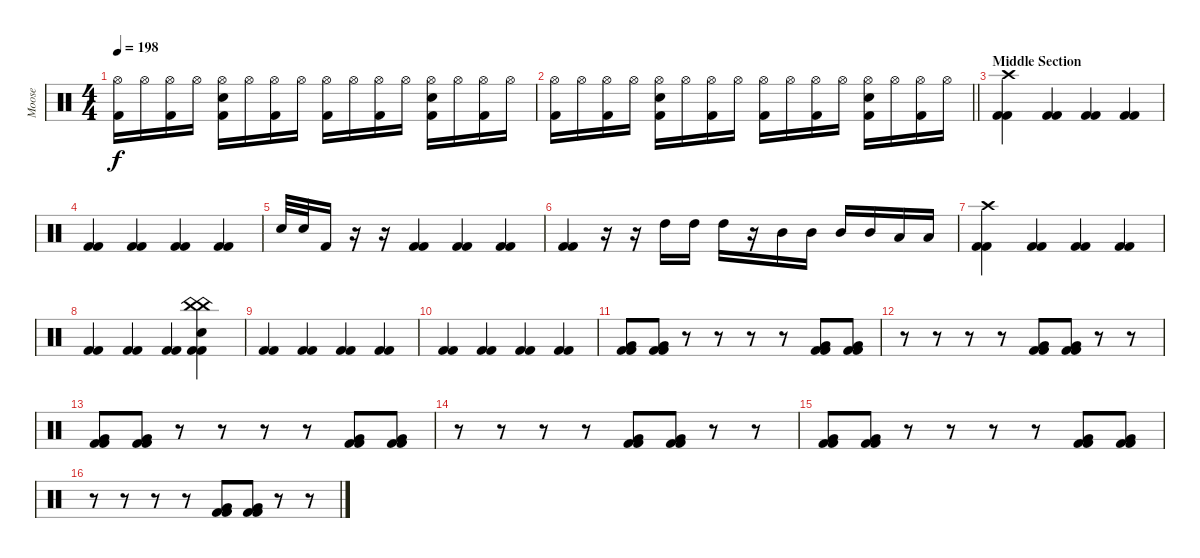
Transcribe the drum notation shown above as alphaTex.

\track ("Moose" "Moose") {instrument percussion}
\staff {score}
\articulation defaults
\ts (4 4)
\tempo 198
\clef neutral
\ks c
("Hi-Hat (open)" "Kick (hit) 2").16{dy f} "Hi-Hat (open)".16 ("Hi-Hat (open)" "Kick (hit) 2").16 "Hi-Hat (open)".16 ("Hi-Hat (open)" "Electric Snare (hit)" "Kick (hit) 2").16 "Hi-Hat (open)".16 ("Hi-Hat (open)" "Kick (hit) 2").16 "Hi-Hat (open)".16 ("Hi-Hat (open)" "Kick (hit) 2").16 "Hi-Hat (open)".16 ("Hi-Hat (open)" "Kick (hit) 2").16 "Hi-Hat (open)".16 ("Hi-Hat (open)" "Electric Snare (hit)" "Kick (hit) 2").16 "Hi-Hat (open)".16 ("Hi-Hat (open)" "Kick (hit) 2").16 "Hi-Hat (open)".16 |
\barLineRight lightlight
("Hi-Hat (open)" "Kick (hit) 2").16 "Hi-Hat (open)".16 ("Hi-Hat (open)" "Kick (hit) 2").16 "Hi-Hat (open)".16 ("Hi-Hat (open)" "Electric Snare (hit)" "Kick (hit) 2").16 "Hi-Hat (open)".16 ("Hi-Hat (open)" "Kick (hit) 2").16 "Hi-Hat (open)".16 ("Hi-Hat (open)" "Kick (hit) 2").16 "Hi-Hat (open)".16 ("Hi-Hat (open)" "Kick (hit) 2").16 "Hi-Hat (open)".16 ("Hi-Hat (open)" "Electric Snare (hit)" "Kick (hit) 2").16 "Hi-Hat (open)".16 ("Hi-Hat (open)" "Kick (hit) 2").16 "Hi-Hat (open)".16 |
\section ("" "Middle Section")
("Crash high (hit)" "Kick (hit) 2" "Kick (hit) 2").4 ("Kick (hit) 2" "Kick (hit) 2").4 ("Kick (hit) 2" "Kick (hit) 2").4 ("Kick (hit) 2" "Kick (hit) 2").4 |
("Kick (hit) 2" "Kick (hit) 2").4 ("Kick (hit) 2" "Kick (hit) 2").4 ("Kick (hit) 2" "Kick (hit) 2").4 ("Kick (hit) 2" "Kick (hit) 2").4 |
"Electric Snare (hit)".32 "Electric Snare (hit)".32 "Kick (hit) 2".16 r.16 r.16 ("Kick (hit) 2" "Kick (hit) 2").4 ("Kick (hit) 2" "Kick (hit) 2").4 ("Kick (hit) 2" "Kick (hit) 2").4 |
("Kick (hit) 2" "Kick (hit) 2").4 r.16 r.16 "High Tom (hit)".16 "High Tom (hit)".16 "High Tom (hit)".16 r.16 "Mid Tom (hit)".16 "Mid Tom (hit)".16 "Mid Tom (hit)".16 "Mid Tom (hit)".16 "Low Tom (hit)".16 "Low Tom (hit)".16 |
("Crash high (hit)" "Kick (hit) 2" "Kick (hit) 2").4 ("Kick (hit) 2" "Kick (hit) 2").4 ("Kick (hit) 2" "Kick (hit) 2").4 ("Kick (hit) 2" "Kick (hit) 2").4 |
("Kick (hit) 2" "Kick (hit) 2").4 ("Kick (hit) 2" "Kick (hit) 2").4 ("Kick (hit) 2" "Kick (hit) 2").4 ("China (hit)" "China (hit)" "Electric Snare (hit)" "Kick (hit) 2" "Kick (hit) 2").4 |
("Kick (hit) 2" "Kick (hit) 2").4 ("Kick (hit) 2" "Kick (hit) 2").4 ("Kick (hit) 2" "Kick (hit) 2").4 ("Kick (hit) 2" "Kick (hit) 2").4 |
("Kick (hit) 2" "Kick (hit) 2").4 ("Kick (hit) 2" "Kick (hit) 2").4 ("Kick (hit) 2" "Kick (hit) 2").4 ("Kick (hit) 2" "Kick (hit) 2").4 |
("Very Low Tom (hit)" "Kick (hit) 2" "Kick (hit) 2").8 ("Very Low Tom (hit)" "Kick (hit) 2" "Kick (hit) 2").8 r.8 r.8 r.8 r.8 ("Very Low Tom (hit)" "Kick (hit) 2" "Kick (hit) 2").8 ("Very Low Tom (hit)" "Kick (hit) 2" "Kick (hit) 2").8 |
r.8 r.8 r.8 r.8 ("Very Low Tom (hit)" "Kick (hit) 2" "Kick (hit) 2").8 ("Very Low Tom (hit)" "Kick (hit) 2" "Kick (hit) 2").8 r.8 r.8 |
("Very Low Tom (hit)" "Kick (hit) 2" "Kick (hit) 2").8 ("Very Low Tom (hit)" "Kick (hit) 2" "Kick (hit) 2").8 r.8 r.8 r.8 r.8 ("Very Low Tom (hit)" "Kick (hit) 2" "Kick (hit) 2").8 ("Very Low Tom (hit)" "Kick (hit) 2" "Kick (hit) 2").8 |
r.8 r.8 r.8 r.8 ("Very Low Tom (hit)" "Kick (hit) 2" "Kick (hit) 2").8 ("Very Low Tom (hit)" "Kick (hit) 2" "Kick (hit) 2").8 r.8 r.8 |
("Very Low Tom (hit)" "Kick (hit) 2" "Kick (hit) 2").8 ("Very Low Tom (hit)" "Kick (hit) 2" "Kick (hit) 2").8 r.8 r.8 r.8 r.8 ("Very Low Tom (hit)" "Kick (hit) 2" "Kick (hit) 2").8 ("Very Low Tom (hit)" "Kick (hit) 2" "Kick (hit) 2").8 |
r.8 r.8 r.8 r.8 ("Very Low Tom (hit)" "Kick (hit) 2" "Kick (hit) 2").8 ("Very Low Tom (hit)" "Kick (hit) 2" "Kick (hit) 2").8 r.8 r.8
